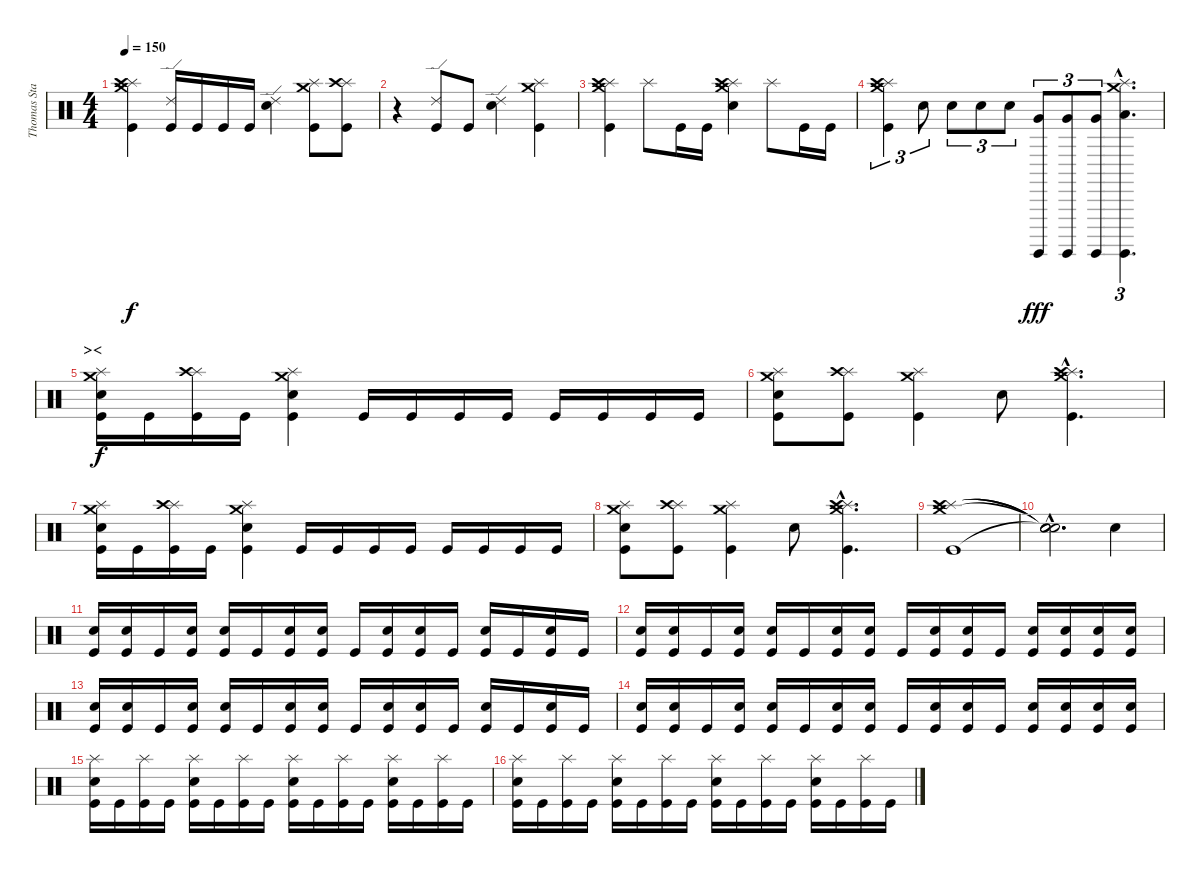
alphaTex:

\track ("Thomas Stauch" "Thomas Sta") {instrument percussion}
\staff {score}
\articulation defaults
\ts (4 4)
\tempo 150
\clef neutral
\ks c
("Crash medium (hit)" "Splash (hit)" "Crash high (hit)" "Kick (hit)").4{dy f} ("Ride (edge) 2" "Kick (hit)").16 "Kick (hit)".16 "Kick (hit)".16 "Kick (hit)".16 ("Ride (edge) 2" "Electric Snare (hit)").4 ("Crash medium (hit)" "Splash (hit)" "Kick (hit)").8 ("Splash (hit)" "Crash high (hit)" "Kick (hit)").8 |
r.4 ("Ride (edge) 2" "Kick (hit)").8 "Kick (hit)".8 ("Ride (edge) 2" "Electric Snare (hit)").4 ("Crash medium (hit)" "Splash (hit)" "Kick (hit)").4 |
("Crash medium (hit)" "Splash (hit)" "Crash high (hit)" "Kick (hit)").4 "Splash (hit)".8 "Kick (hit)".16 "Kick (hit)".16 ("Crash medium (hit)" "Splash (hit)" "Crash high (hit)" "Electric Snare (hit)").4 "Splash (hit)".8 "Kick (hit)".16 "Kick (hit)".16 |
("Crash medium (hit)" "Splash (hit)" "Crash high (hit)" "Kick (hit)").4{tu (3 2)} "Electric Snare (hit)".8{tu (3 2)} "Electric Snare (hit)".8{tu (3 2)} "Electric Snare (hit)".8{tu (3 2)} "Electric Snare (hit)".8{tu (3 2)} ("Surdo (hit)" "Very Low Tom (hit)").8{tu (3 2) dy fff} ("Surdo (hit)" "Very Low Tom (hit)").8{tu (3 2)} ("Surdo (hit)" "Very Low Tom (hit)").8{tu (3 2)} ("Crash medium (hit)"{hac} "Splash (hit)"{hac} "Surdo (hit)"{hac} "Low Floor Tom (hit)"{hac}).4{d tu (3 2)} |
\section ("" "><")
("Crash medium (hit)" "Splash (hit)" "Electric Snare (hit)" "Kick (hit)").16{dy f} "Kick (hit)".16 ("Splash (hit)" "Crash high (hit)" "Kick (hit)").16 "Kick (hit)".16 ("Crash medium (hit)" "Splash (hit)" "Electric Snare (hit)" "Kick (hit)").4 "Kick (hit)".16 "Kick (hit)".16 "Kick (hit)".16 "Kick (hit)".16 "Kick (hit)".16 "Kick (hit)".16 "Kick (hit)".16 "Kick (hit)".16 |
("Crash medium (hit)" "Splash (hit)" "Electric Snare (hit)" "Kick (hit)").8 ("Splash (hit)" "Crash high (hit)" "Kick (hit)").8 ("Crash medium (hit)" "Splash (hit)" "Kick (hit)").4 "Electric Snare (hit)".8 ("Crash medium (hit)"{hac} "Splash (hit)"{hac} "Crash high (hit)"{hac} "Kick (hit)"{hac}).4{d} |
("Crash medium (hit)" "Splash (hit)" "Electric Snare (hit)" "Kick (hit)").16 "Kick (hit)".16 ("Splash (hit)" "Crash high (hit)" "Kick (hit)").16 "Kick (hit)".16 ("Crash medium (hit)" "Splash (hit)" "Electric Snare (hit)" "Kick (hit)").4 "Kick (hit)".16 "Kick (hit)".16 "Kick (hit)".16 "Kick (hit)".16 "Kick (hit)".16 "Kick (hit)".16 "Kick (hit)".16 "Kick (hit)".16 |
("Crash medium (hit)" "Splash (hit)" "Electric Snare (hit)" "Kick (hit)").8 ("Splash (hit)" "Crash high (hit)" "Kick (hit)").8 ("Crash medium (hit)" "Splash (hit)" "Kick (hit)").4 "Electric Snare (hit)".8 ("Crash medium (hit)"{hac} "Splash (hit)"{hac} "Crash high (hit)"{hac} "Kick (hit)"{hac}).4{d} |
("Crash medium (hit)" "Splash (hit)" "Crash high (hit)" "Kick (hit)").1 |
("Snare (hit)"{hac t} "Snare (hit)"{hac t} "Snare (hit)"{hac t} "Snare (hit)"{hac t}).2{d} "Electric Snare (hit)".4 |
("Electric Snare (hit)" "Kick (hit)").16 ("Electric Snare (hit)" "Kick (hit)").16 "Kick (hit)".16 ("Electric Snare (hit)" "Kick (hit)").16 ("Electric Snare (hit)" "Kick (hit)").16 "Kick (hit)".16 ("Electric Snare (hit)" "Kick (hit)").16 ("Electric Snare (hit)" "Kick (hit)").16 "Kick (hit)".16 ("Electric Snare (hit)" "Kick (hit)").16 ("Electric Snare (hit)" "Kick (hit)").16 "Kick (hit)".16 ("Electric Snare (hit)" "Kick (hit)").16 "Kick (hit)".16 ("Electric Snare (hit)" "Kick (hit)").16 "Kick (hit)".16 |
("Electric Snare (hit)" "Kick (hit)").16 ("Electric Snare (hit)" "Kick (hit)").16 "Kick (hit)".16 ("Electric Snare (hit)" "Kick (hit)").16 ("Electric Snare (hit)" "Kick (hit)").16 "Kick (hit)".16 ("Electric Snare (hit)" "Kick (hit)").16 ("Electric Snare (hit)" "Kick (hit)").16 "Kick (hit)".16 ("Electric Snare (hit)" "Kick (hit)").16 ("Electric Snare (hit)" "Kick (hit)").16 "Kick (hit)".16 ("Electric Snare (hit)" "Kick (hit)").16 ("Electric Snare (hit)" "Kick (hit)").16 ("Electric Snare (hit)" "Kick (hit)").16 ("Electric Snare (hit)" "Kick (hit)").16 |
("Electric Snare (hit)" "Kick (hit)").16 ("Electric Snare (hit)" "Kick (hit)").16 "Kick (hit)".16 ("Electric Snare (hit)" "Kick (hit)").16 ("Electric Snare (hit)" "Kick (hit)").16 "Kick (hit)".16 ("Electric Snare (hit)" "Kick (hit)").16 ("Electric Snare (hit)" "Kick (hit)").16 "Kick (hit)".16 ("Electric Snare (hit)" "Kick (hit)").16 ("Electric Snare (hit)" "Kick (hit)").16 "Kick (hit)".16 ("Electric Snare (hit)" "Kick (hit)").16 "Kick (hit)".16 ("Electric Snare (hit)" "Kick (hit)").16 "Kick (hit)".16 |
("Electric Snare (hit)" "Kick (hit)").16 ("Electric Snare (hit)" "Kick (hit)").16 "Kick (hit)".16 ("Electric Snare (hit)" "Kick (hit)").16 ("Electric Snare (hit)" "Kick (hit)").16 "Kick (hit)".16 ("Electric Snare (hit)" "Kick (hit)").16 ("Electric Snare (hit)" "Kick (hit)").16 "Kick (hit)".16 ("Electric Snare (hit)" "Kick (hit)").16 ("Electric Snare (hit)" "Kick (hit)").16 "Kick (hit)".16 ("Electric Snare (hit)" "Kick (hit)").16 ("Electric Snare (hit)" "Kick (hit)").16 ("Electric Snare (hit)" "Kick (hit)").16 ("Electric Snare (hit)" "Kick (hit)").16 |
("Splash (hit)" "Electric Snare (hit)" "Kick (hit)").16 "Kick (hit)".16 ("Splash (hit)" "Kick (hit)").16 "Kick (hit)".16 ("Splash (hit)" "Electric Snare (hit)" "Kick (hit)").16 "Kick (hit)".16 ("Splash (hit)" "Kick (hit)").16 "Kick (hit)".16 ("Splash (hit)" "Electric Snare (hit)" "Kick (hit)").16 "Kick (hit)".16 ("Splash (hit)" "Kick (hit)").16 "Kick (hit)".16 ("Splash (hit)" "Electric Snare (hit)" "Kick (hit)").16 "Kick (hit)".16 ("Splash (hit)" "Kick (hit)").16 "Kick (hit)".16 |
("Splash (hit)" "Electric Snare (hit)" "Kick (hit)").16 "Kick (hit)".16 ("Splash (hit)" "Kick (hit)").16 "Kick (hit)".16 ("Splash (hit)" "Electric Snare (hit)" "Kick (hit)").16 "Kick (hit)".16 ("Splash (hit)" "Kick (hit)").16 "Kick (hit)".16 ("Splash (hit)" "Electric Snare (hit)" "Kick (hit)").16 "Kick (hit)".16 ("Splash (hit)" "Kick (hit)").16 "Kick (hit)".16 ("Splash (hit)" "Electric Snare (hit)" "Kick (hit)").16 "Kick (hit)".16 ("Splash (hit)" "Kick (hit)").16 "Kick (hit)".16
